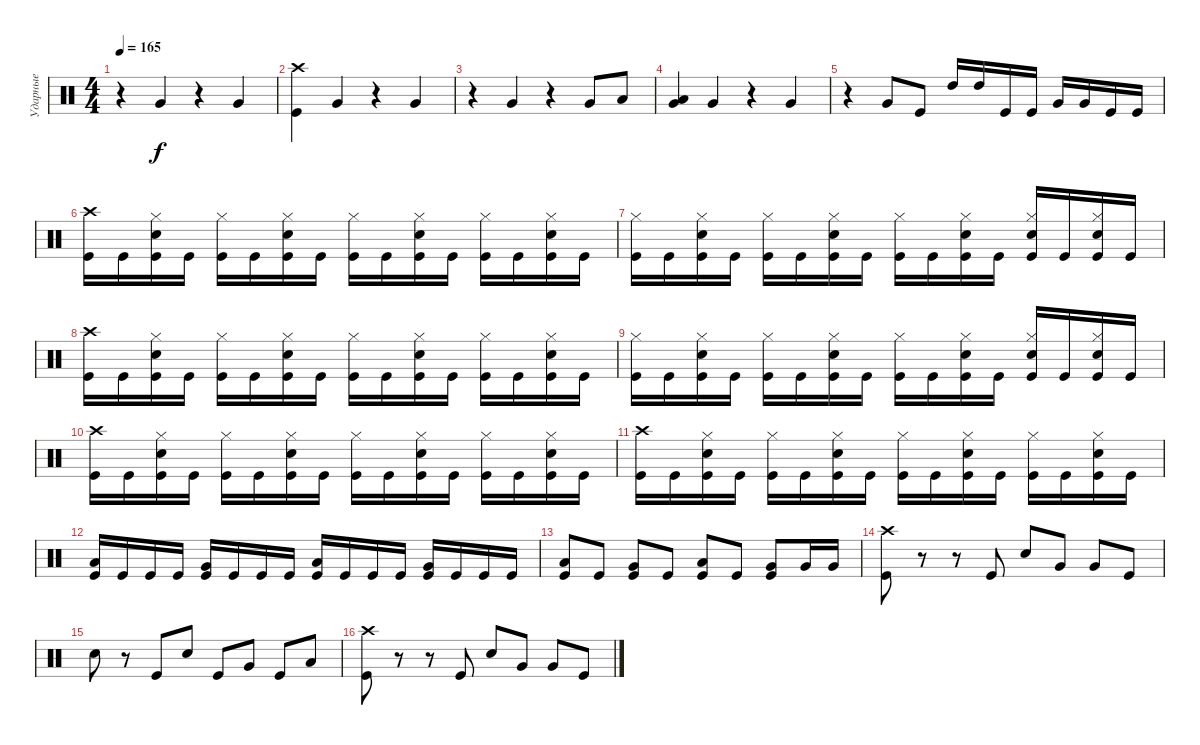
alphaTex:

\track ("Ударные" "Ударные") {instrument percussion}
\staff {score}
\articulation defaults
\ts (4 4)
\tempo 165
\clef neutral
\ks c
r.4{dy f} "Very Low Tom (hit)".4 r.4 "Very Low Tom (hit)".4 |
("Crash high (hit)" "Kick (hit)").4 "Very Low Tom (hit)".4 r.4 "Very Low Tom (hit)".4 |
r.4 "Very Low Tom (hit)".4 r.4 "Very Low Tom (hit)".8 "Low Tom (hit)".8 |
("Very Low Tom (hit)" "Low Tom (hit)").4 "Very Low Tom (hit)".4 r.4 "Very Low Tom (hit)".4 |
r.4 "Very Low Tom (hit)".8 "Kick (hit)".8 "High Tom (hit)".16 "High Tom (hit)".16 "Kick (hit)".16 "Kick (hit)".16 "Very Low Tom (hit)".16 "Very Low Tom (hit)".16 "Kick (hit)".16 "Kick (hit)".16 |
("Crash high (hit)" "Kick (hit)").16 "Kick (hit)".16 ("Hi-Hat (closed)" "Electric Snare (hit)" "Kick (hit)").16 "Kick (hit)".16 ("Hi-Hat (closed)" "Kick (hit)").16 "Kick (hit)".16 ("Hi-Hat (closed)" "Electric Snare (hit)" "Kick (hit)").16 "Kick (hit)".16 ("Hi-Hat (closed)" "Kick (hit)").16 "Kick (hit)".16 ("Hi-Hat (closed)" "Electric Snare (hit)" "Kick (hit)").16 "Kick (hit)".16 ("Hi-Hat (closed)" "Kick (hit)").16 "Kick (hit)".16 ("Hi-Hat (closed)" "Electric Snare (hit)" "Kick (hit)").16 "Kick (hit)".16 |
("Hi-Hat (closed)" "Kick (hit)").16 "Kick (hit)".16 ("Hi-Hat (closed)" "Electric Snare (hit)" "Kick (hit)").16 "Kick (hit)".16 ("Hi-Hat (closed)" "Kick (hit)").16 "Kick (hit)".16 ("Hi-Hat (closed)" "Electric Snare (hit)" "Kick (hit)").16 "Kick (hit)".16 ("Hi-Hat (closed)" "Kick (hit)").16 "Kick (hit)".16 ("Hi-Hat (closed)" "Electric Snare (hit)" "Kick (hit)").16 "Kick (hit)".16 ("Hi-Hat (closed)" "Electric Snare (hit)" "Kick (hit)").16 "Kick (hit)".16 ("Hi-Hat (closed)" "Electric Snare (hit)" "Kick (hit)").16 "Kick (hit)".16 |
("Crash high (hit)" "Kick (hit)").16 "Kick (hit)".16 ("Hi-Hat (closed)" "Electric Snare (hit)" "Kick (hit)").16 "Kick (hit)".16 ("Hi-Hat (closed)" "Kick (hit)").16 "Kick (hit)".16 ("Hi-Hat (closed)" "Electric Snare (hit)" "Kick (hit)").16 "Kick (hit)".16 ("Hi-Hat (closed)" "Kick (hit)").16 "Kick (hit)".16 ("Hi-Hat (closed)" "Electric Snare (hit)" "Kick (hit)").16 "Kick (hit)".16 ("Hi-Hat (closed)" "Kick (hit)").16 "Kick (hit)".16 ("Hi-Hat (closed)" "Electric Snare (hit)" "Kick (hit)").16 "Kick (hit)".16 |
("Hi-Hat (closed)" "Kick (hit)").16 "Kick (hit)".16 ("Hi-Hat (closed)" "Electric Snare (hit)" "Kick (hit)").16 "Kick (hit)".16 ("Hi-Hat (closed)" "Kick (hit)").16 "Kick (hit)".16 ("Hi-Hat (closed)" "Electric Snare (hit)" "Kick (hit)").16 "Kick (hit)".16 ("Hi-Hat (closed)" "Kick (hit)").16 "Kick (hit)".16 ("Hi-Hat (closed)" "Electric Snare (hit)" "Kick (hit)").16 "Kick (hit)".16 ("Hi-Hat (closed)" "Electric Snare (hit)" "Kick (hit)").16 "Kick (hit)".16 ("Hi-Hat (closed)" "Electric Snare (hit)" "Kick (hit)").16 "Kick (hit)".16 |
("Crash high (hit)" "Kick (hit)").16 "Kick (hit)".16 ("Hi-Hat (closed)" "Electric Snare (hit)" "Kick (hit)").16 "Kick (hit)".16 ("Hi-Hat (closed)" "Kick (hit)").16 "Kick (hit)".16 ("Hi-Hat (closed)" "Electric Snare (hit)" "Kick (hit)").16 "Kick (hit)".16 ("Hi-Hat (closed)" "Kick (hit)").16 "Kick (hit)".16 ("Hi-Hat (closed)" "Electric Snare (hit)" "Kick (hit)").16 "Kick (hit)".16 ("Hi-Hat (closed)" "Kick (hit)").16 "Kick (hit)".16 ("Hi-Hat (closed)" "Electric Snare (hit)" "Kick (hit)").16 "Kick (hit)".16 |
("Crash high (hit)" "Kick (hit)").16 "Kick (hit)".16 ("Hi-Hat (closed)" "Electric Snare (hit)" "Kick (hit)").16 "Kick (hit)".16 ("Hi-Hat (closed)" "Kick (hit)").16 "Kick (hit)".16 ("Hi-Hat (closed)" "Electric Snare (hit)" "Kick (hit)").16 "Kick (hit)".16 ("Hi-Hat (closed)" "Kick (hit)").16 "Kick (hit)".16 ("Hi-Hat (closed)" "Electric Snare (hit)" "Kick (hit)").16 "Kick (hit)".16 ("Hi-Hat (closed)" "Kick (hit)").16 "Kick (hit)".16 ("Hi-Hat (closed)" "Electric Snare (hit)" "Kick (hit)").16 "Kick (hit)".16 |
("Low Tom (hit)" "Kick (hit)").16 "Kick (hit)".16 "Kick (hit)".16 "Kick (hit)".16 ("Very Low Tom (hit)" "Kick (hit)").16 "Kick (hit)".16 "Kick (hit)".16 "Kick (hit)".16 ("Low Tom (hit)" "Kick (hit)").16 "Kick (hit)".16 "Kick (hit)".16 "Kick (hit)".16 ("Very Low Tom (hit)" "Kick (hit)").16 "Kick (hit)".16 "Kick (hit)".16 "Kick (hit)".16 |
("Low Tom (hit)" "Kick (hit)").8 "Kick (hit)".8 ("Very Low Tom (hit)" "Kick (hit)").8 "Kick (hit)".8 ("Low Tom (hit)" "Kick (hit)").8 "Kick (hit)".8 ("Very Low Tom (hit)" "Kick (hit)").8 "Very Low Tom (hit)".16 "Very Low Tom (hit)".16 |
("Crash high (hit)" "Kick (hit)").8 r.8 r.8 "Kick (hit)".8 "Electric Snare (hit)".8 "Very Low Tom (hit)".8 "Very Low Tom (hit)".8 "Kick (hit)".8 |
"Electric Snare (hit)".8 r.8 "Kick (hit)".8 "Electric Snare (hit)".8 "Kick (hit)".8 "Very Low Tom (hit)".8 "Kick (hit)".8 "Low Tom (hit)".8 |
("Crash high (hit)" "Kick (hit)").8 r.8 r.8 "Kick (hit)".8 "Electric Snare (hit)".8 "Very Low Tom (hit)".8 "Very Low Tom (hit)".8 "Kick (hit)".8
